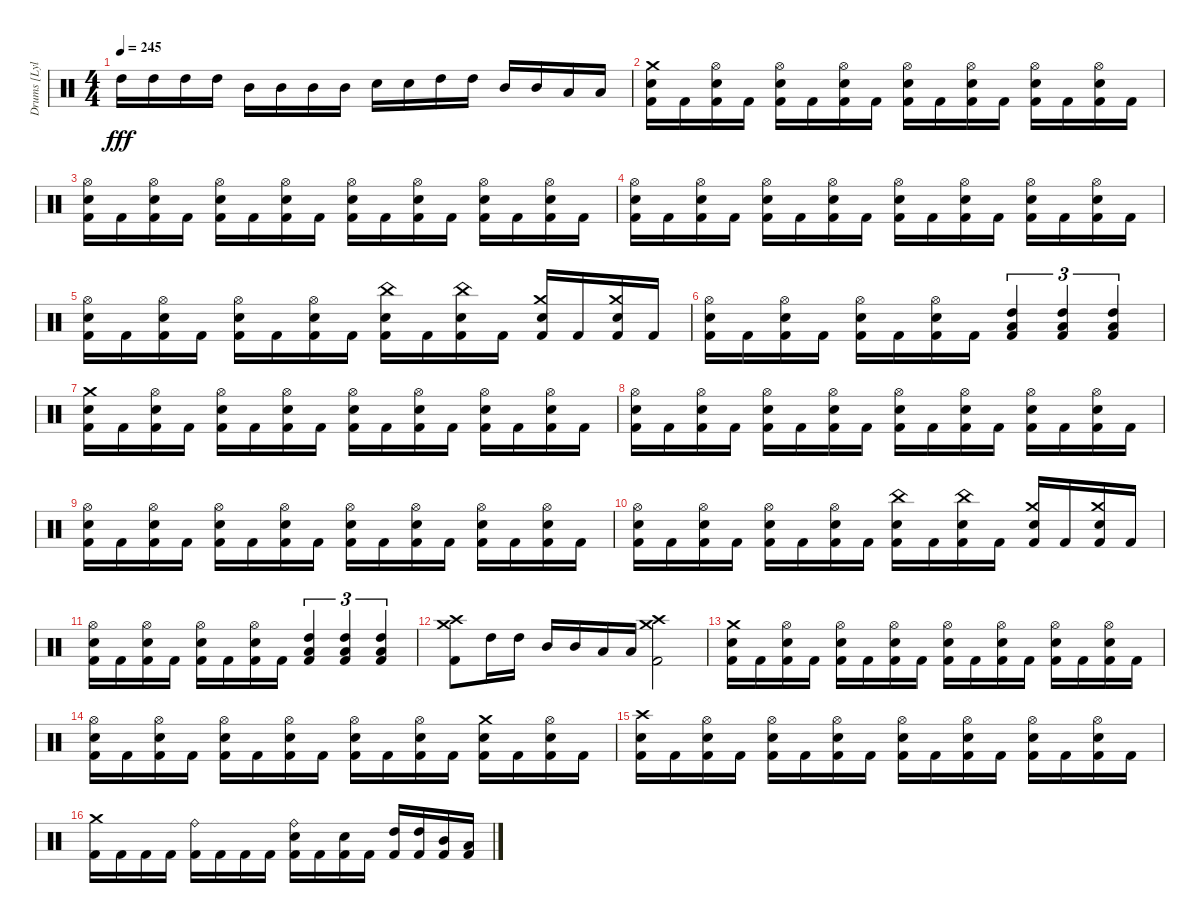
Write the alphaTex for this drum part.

\track ("Drums [Lyle Cooper]" "Drums [Lyl") {instrument percussion}
\staff {score}
\articulation defaults
\ts (4 4)
\tempo 245
\clef neutral
\ks c "High Tom (hit)".16{dy fff} "High Tom (hit)".16 "High Tom (hit)".16 "High Tom (hit)".16 "Mid Tom (hit)".16 "Mid Tom (hit)".16 "Mid Tom (hit)".16 "Mid Tom (hit)".16 "Electric Snare (hit)".16 "Electric Snare (hit)".16 "High Tom (hit)".16 "High Tom (hit)".16 "Mid Tom (hit)".16 "Mid Tom (hit)".16 "Low Tom (hit)".16 "Low Tom (hit)".16
|
("Crash medium (hit)" "Electric Snare (hit)" "Kick (hit) 2").16 "Kick (hit) 2".16 ("Hi-Hat (open)" "Electric Snare (hit)" "Kick (hit) 2").16 "Kick (hit) 2".16 ("Hi-Hat (open)" "Electric Snare (hit)" "Kick (hit) 2").16 "Kick (hit) 2".16 ("Hi-Hat (open)" "Electric Snare (hit)" "Kick (hit) 2").16 "Kick (hit) 2".16 ("Hi-Hat (open)" "Electric Snare (hit)" "Kick (hit) 2").16 "Kick (hit) 2".16 ("Hi-Hat (open)" "Electric Snare (hit)" "Kick (hit) 2").16 "Kick (hit) 2".16 ("Hi-Hat (open)" "Electric Snare (hit)" "Kick (hit) 2").16 "Kick (hit) 2".16 ("Hi-Hat (open)" "Electric Snare (hit)" "Kick (hit) 2").16 "Kick (hit) 2".16 |
("Hi-Hat (open)" "Electric Snare (hit)" "Kick (hit) 2").16 "Kick (hit) 2".16 ("Hi-Hat (open)" "Electric Snare (hit)" "Kick (hit) 2").16 "Kick (hit) 2".16 ("Hi-Hat (open)" "Electric Snare (hit)" "Kick (hit) 2").16 "Kick (hit) 2".16 ("Hi-Hat (open)" "Electric Snare (hit)" "Kick (hit) 2").16 "Kick (hit) 2".16 ("Hi-Hat (open)" "Electric Snare (hit)" "Kick (hit) 2").16 "Kick (hit) 2".16 ("Hi-Hat (open)" "Electric Snare (hit)" "Kick (hit) 2").16 "Kick (hit) 2".16 ("Hi-Hat (open)" "Electric Snare (hit)" "Kick (hit) 2").16 "Kick (hit) 2".16 ("Hi-Hat (open)" "Electric Snare (hit)" "Kick (hit) 2").16 "Kick (hit) 2".16 |
("Hi-Hat (open)" "Electric Snare (hit)" "Kick (hit) 2").16 "Kick (hit) 2".16 ("Hi-Hat (open)" "Electric Snare (hit)" "Kick (hit) 2").16 "Kick (hit) 2".16 ("Hi-Hat (open)" "Electric Snare (hit)" "Kick (hit) 2").16 "Kick (hit) 2".16 ("Hi-Hat (open)" "Electric Snare (hit)" "Kick (hit) 2").16 "Kick (hit) 2".16 ("Hi-Hat (open)" "Electric Snare (hit)" "Kick (hit) 2").16 "Kick (hit) 2".16 ("Hi-Hat (open)" "Electric Snare (hit)" "Kick (hit) 2").16 "Kick (hit) 2".16 ("Hi-Hat (open)" "Electric Snare (hit)" "Kick (hit) 2").16 "Kick (hit) 2".16 ("Hi-Hat (open)" "Electric Snare (hit)" "Kick (hit) 2").16 "Kick (hit) 2".16 |
("Hi-Hat (open)" "Electric Snare (hit)" "Kick (hit) 2").16 "Kick (hit) 2".16 ("Hi-Hat (open)" "Electric Snare (hit)" "Kick (hit) 2").16 "Kick (hit) 2".16 ("Hi-Hat (open)" "Electric Snare (hit)" "Kick (hit) 2").16 "Kick (hit) 2".16 ("Hi-Hat (open)" "Electric Snare (hit)" "Kick (hit) 2").16 "Kick (hit) 2".16 ("China (hit)" "Electric Snare (hit)" "Kick (hit) 2").16 "Kick (hit) 2".16 ("China (hit)" "Electric Snare (hit)" "Kick (hit) 2").16 "Kick (hit) 2".16 ("Crash medium (hit)" "Electric Snare (hit)" "Kick (hit) 2").16 "Kick (hit) 2".16 ("Crash medium (hit)" "Electric Snare (hit)" "Kick (hit) 2").16 "Kick (hit) 2".16 |
("Hi-Hat (open)" "Electric Snare (hit)" "Kick (hit) 2").16 "Kick (hit) 2".16 ("Hi-Hat (open)" "Electric Snare (hit)" "Kick (hit) 2").16 "Kick (hit) 2".16 ("Hi-Hat (open)" "Electric Snare (hit)" "Kick (hit) 2").16 "Kick (hit) 2".16 ("Hi-Hat (open)" "Electric Snare (hit)" "Kick (hit) 2").16 "Kick (hit) 2".16 ("Low Tom (hit)" "Kick (hit) 2" "High Tom (hit)").4{tu (3 2)} ("Low Tom (hit)" "Kick (hit) 2" "High Tom (hit)").4{tu (3 2)} ("Low Tom (hit)" "Kick (hit) 2" "High Tom (hit)").4{tu (3 2)} |
("Crash medium (hit)" "Electric Snare (hit)" "Kick (hit) 2").16 "Kick (hit) 2".16 ("Hi-Hat (open)" "Electric Snare (hit)" "Kick (hit) 2").16 "Kick (hit) 2".16 ("Hi-Hat (open)" "Electric Snare (hit)" "Kick (hit) 2").16 "Kick (hit) 2".16 ("Hi-Hat (open)" "Electric Snare (hit)" "Kick (hit) 2").16 "Kick (hit) 2".16 ("Hi-Hat (open)" "Electric Snare (hit)" "Kick (hit) 2").16 "Kick (hit) 2".16 ("Hi-Hat (open)" "Electric Snare (hit)" "Kick (hit) 2").16 "Kick (hit) 2".16 ("Hi-Hat (open)" "Electric Snare (hit)" "Kick (hit) 2").16 "Kick (hit) 2".16 ("Hi-Hat (open)" "Electric Snare (hit)" "Kick (hit) 2").16 "Kick (hit) 2".16 |
("Hi-Hat (open)" "Electric Snare (hit)" "Kick (hit) 2").16 "Kick (hit) 2".16 ("Hi-Hat (open)" "Electric Snare (hit)" "Kick (hit) 2").16 "Kick (hit) 2".16 ("Hi-Hat (open)" "Electric Snare (hit)" "Kick (hit) 2").16 "Kick (hit) 2".16 ("Hi-Hat (open)" "Electric Snare (hit)" "Kick (hit) 2").16 "Kick (hit) 2".16 ("Hi-Hat (open)" "Electric Snare (hit)" "Kick (hit) 2").16 "Kick (hit) 2".16 ("Hi-Hat (open)" "Electric Snare (hit)" "Kick (hit) 2").16 "Kick (hit) 2".16 ("Hi-Hat (open)" "Electric Snare (hit)" "Kick (hit) 2").16 "Kick (hit) 2".16 ("Hi-Hat (open)" "Electric Snare (hit)" "Kick (hit) 2").16 "Kick (hit) 2".16 |
("Hi-Hat (open)" "Electric Snare (hit)" "Kick (hit) 2").16 "Kick (hit) 2".16 ("Hi-Hat (open)" "Electric Snare (hit)" "Kick (hit) 2").16 "Kick (hit) 2".16 ("Hi-Hat (open)" "Electric Snare (hit)" "Kick (hit) 2").16 "Kick (hit) 2".16 ("Hi-Hat (open)" "Electric Snare (hit)" "Kick (hit) 2").16 "Kick (hit) 2".16 ("Hi-Hat (open)" "Electric Snare (hit)" "Kick (hit) 2").16 "Kick (hit) 2".16 ("Hi-Hat (open)" "Electric Snare (hit)" "Kick (hit) 2").16 "Kick (hit) 2".16 ("Hi-Hat (open)" "Electric Snare (hit)" "Kick (hit) 2").16 "Kick (hit) 2".16 ("Hi-Hat (open)" "Electric Snare (hit)" "Kick (hit) 2").16 "Kick (hit) 2".16 |
("Hi-Hat (open)" "Electric Snare (hit)" "Kick (hit) 2").16 "Kick (hit) 2".16 ("Hi-Hat (open)" "Electric Snare (hit)" "Kick (hit) 2").16 "Kick (hit) 2".16 ("Hi-Hat (open)" "Electric Snare (hit)" "Kick (hit) 2").16 "Kick (hit) 2".16 ("Hi-Hat (open)" "Electric Snare (hit)" "Kick (hit) 2").16 "Kick (hit) 2".16 ("China (hit)" "Electric Snare (hit)" "Kick (hit) 2").16 "Kick (hit) 2".16 ("China (hit)" "Electric Snare (hit)" "Kick (hit) 2").16 "Kick (hit) 2".16 ("Crash medium (hit)" "Electric Snare (hit)" "Kick (hit) 2").16 "Kick (hit) 2".16 ("Crash medium (hit)" "Electric Snare (hit)" "Kick (hit) 2").16 "Kick (hit) 2".16 |
("Hi-Hat (open)" "Electric Snare (hit)" "Kick (hit) 2").16 "Kick (hit) 2".16 ("Hi-Hat (open)" "Electric Snare (hit)" "Kick (hit) 2").16 "Kick (hit) 2".16 ("Hi-Hat (open)" "Electric Snare (hit)" "Kick (hit) 2").16 "Kick (hit) 2".16 ("Hi-Hat (open)" "Electric Snare (hit)" "Kick (hit) 2").16 "Kick (hit) 2".16 ("Low Tom (hit)" "Kick (hit) 2" "High Tom (hit)").4{tu (3 2)} ("Low Tom (hit)" "Kick (hit) 2" "High Tom (hit)").4{tu (3 2)} ("Low Tom (hit)" "Kick (hit) 2" "High Tom (hit)").4{tu (3 2)} |
("Crash medium (hit)" "Crash high (hit)" "Kick (hit) 2").8 "High Tom (hit)".16 "High Tom (hit)".16 "Mid Tom (hit)".16 "Mid Tom (hit)".16 "Low Tom (hit)".16 "Low Tom (hit)".16 ("Crash medium (hit)" "Crash high (hit)" "Kick (hit) 2").2 |
("Crash medium (hit)" "Electric Snare (hit)" "Kick (hit) 2").16 "Kick (hit) 2".16 ("Hi-Hat (open)" "Electric Snare (hit)" "Kick (hit) 2").16 "Kick (hit) 2".16 ("Hi-Hat (open)" "Electric Snare (hit)" "Kick (hit) 2").16 "Kick (hit) 2".16 ("Hi-Hat (open)" "Electric Snare (hit)" "Kick (hit) 2").16 "Kick (hit) 2".16 ("Hi-Hat (open)" "Electric Snare (hit)" "Kick (hit) 2").16 "Kick (hit) 2".16 ("Hi-Hat (open)" "Electric Snare (hit)" "Kick (hit) 2").16 "Kick (hit) 2".16 ("Hi-Hat (open)" "Electric Snare (hit)" "Kick (hit) 2").16 "Kick (hit) 2".16 ("Hi-Hat (open)" "Electric Snare (hit)" "Kick (hit) 2").16 "Kick (hit) 2".16 |
("Hi-Hat (open)" "Electric Snare (hit)" "Kick (hit) 2").16 "Kick (hit) 2".16 ("Hi-Hat (open)" "Electric Snare (hit)" "Kick (hit) 2").16 "Kick (hit) 2".16 ("Hi-Hat (open)" "Electric Snare (hit)" "Kick (hit) 2").16 "Kick (hit) 2".16 ("Hi-Hat (open)" "Electric Snare (hit)" "Kick (hit) 2").16 "Kick (hit) 2".16 ("Hi-Hat (open)" "Electric Snare (hit)" "Kick (hit) 2").16 "Kick (hit) 2".16 ("Hi-Hat (open)" "Electric Snare (hit)" "Kick (hit) 2").16 "Kick (hit) 2".16 ("Crash medium (hit)" "Electric Snare (hit)" "Kick (hit) 2").16 "Kick (hit) 2".16 ("Hi-Hat (open)" "Electric Snare (hit)" "Kick (hit) 2").16 "Kick (hit) 2".16 |
("Crash high (hit)" "Electric Snare (hit)" "Kick (hit) 2").16 "Kick (hit) 2".16 ("Hi-Hat (open)" "Electric Snare (hit)" "Kick (hit) 2").16 "Kick (hit) 2".16 ("Hi-Hat (open)" "Electric Snare (hit)" "Kick (hit) 2").16 "Kick (hit) 2".16 ("Hi-Hat (open)" "Electric Snare (hit)" "Kick (hit) 2").16 "Kick (hit) 2".16 ("Hi-Hat (open)" "Electric Snare (hit)" "Kick (hit) 2").16 "Kick (hit) 2".16 ("Hi-Hat (open)" "Electric Snare (hit)" "Kick (hit) 2").16 "Kick (hit) 2".16 ("Hi-Hat (open)" "Electric Snare (hit)" "Kick (hit) 2").16 "Kick (hit) 2".16 ("Hi-Hat (open)" "Electric Snare (hit)" "Kick (hit) 2").16 "Kick (hit) 2".16 |
("Crash medium (hit)" "Kick (hit) 2").16 "Kick (hit) 2".16 "Kick (hit) 2".16 "Kick (hit) 2".16 ("Ride (bell)" "Kick (hit) 2").16 "Kick (hit) 2".16 "Kick (hit) 2".16 "Kick (hit) 2".16 ("Ride (bell)" "Electric Snare (hit)" "Kick (hit) 2").16 "Kick (hit) 2".16 ("Electric Snare (hit)" "Kick (hit) 2").16 "Kick (hit) 2".16 ("High Tom (hit)" "Kick (hit) 2").16 ("High Tom (hit)" "Kick (hit) 2").16 ("Mid Tom (hit)" "Kick (hit) 2").16 ("Low Tom (hit)" "Kick (hit) 2").16
